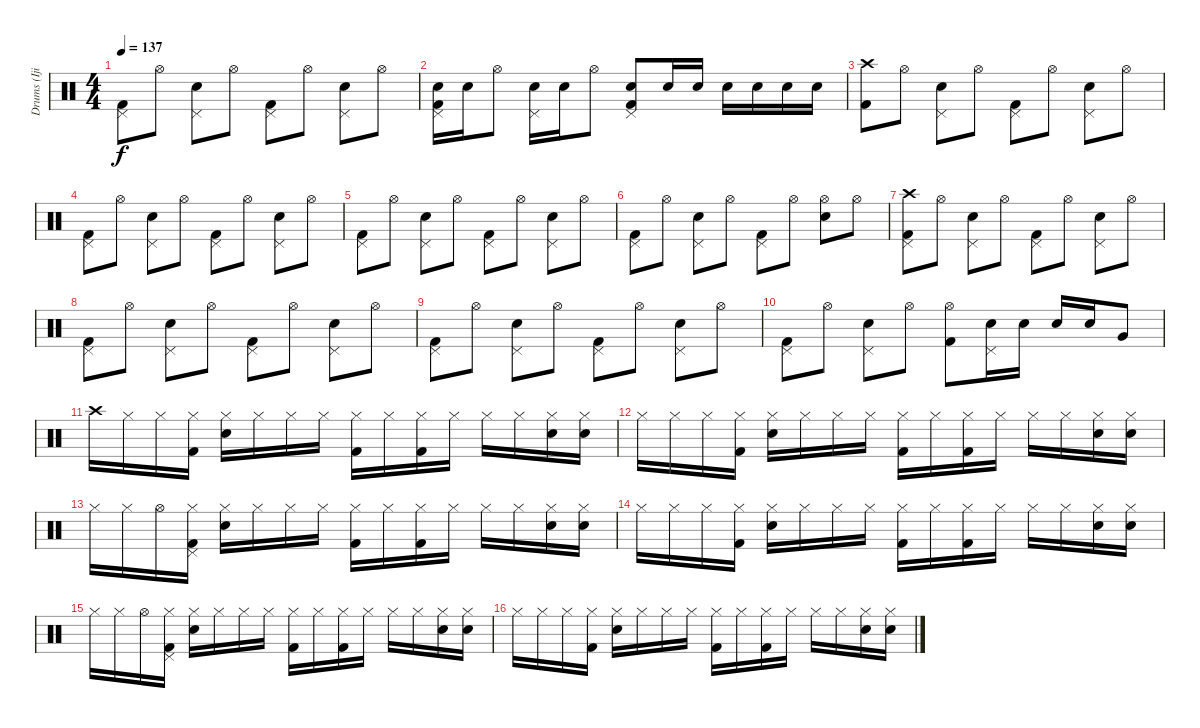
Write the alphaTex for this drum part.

\track ("Drums (Ijichi)" "Drums (Iji") {instrument percussion}
\staff {score}
\articulation defaults
\ts (4 4)
\tempo 137
\clef neutral
\ks c
("Pedal Hi-Hat (hit)" "Kick (hit) 2").8{dy f} "Hi-Hat (open)".8 ("Pedal Hi-Hat (hit)" "Snare (hit) 2").8 "Hi-Hat (open)".8 ("Pedal Hi-Hat (hit)" "Kick (hit) 2").8 "Hi-Hat (open)".8 ("Pedal Hi-Hat (hit)" "Snare (hit) 2").8 "Hi-Hat (open)".8 |
("Pedal Hi-Hat (hit)" "Snare (hit) 2" "Kick (hit) 2").16 "Snare (hit) 2".16 "Hi-Hat (open)".8 ("Pedal Hi-Hat (hit)" "Snare (hit) 2").16 "Snare (hit) 2".16 "Hi-Hat (open)".8 ("Pedal Hi-Hat (hit)" "Snare (hit) 2" "Kick (hit) 2").8 "Snare (hit) 2".16 "Snare (hit) 2".16 "Snare (hit) 2".16 "Snare (hit) 2".16 "Snare (hit) 2".16 "Snare (hit) 2".16 |
("Crash high (hit)" "Kick (hit) 2").8 "Hi-Hat (open)".8 ("Pedal Hi-Hat (hit)" "Snare (hit) 2").8 "Hi-Hat (open)".8 ("Pedal Hi-Hat (hit)" "Kick (hit) 2").8 "Hi-Hat (open)".8 ("Pedal Hi-Hat (hit)" "Snare (hit) 2").8 "Hi-Hat (open)".8 |
("Pedal Hi-Hat (hit)" "Kick (hit) 2").8 "Hi-Hat (open)".8 ("Pedal Hi-Hat (hit)" "Snare (hit) 2").8 "Hi-Hat (open)".8 ("Pedal Hi-Hat (hit)" "Kick (hit) 2").8 "Hi-Hat (open)".8 ("Pedal Hi-Hat (hit)" "Snare (hit) 2").8 "Hi-Hat (open)".8 |
("Pedal Hi-Hat (hit)" "Kick (hit) 2").8 "Hi-Hat (open)".8 ("Pedal Hi-Hat (hit)" "Snare (hit) 2").8 "Hi-Hat (open)".8 ("Pedal Hi-Hat (hit)" "Kick (hit) 2").8 "Hi-Hat (open)".8 ("Pedal Hi-Hat (hit)" "Snare (hit) 2").8 "Hi-Hat (open)".8 |
("Pedal Hi-Hat (hit)" "Kick (hit) 2").8 "Hi-Hat (open)".8 ("Pedal Hi-Hat (hit)" "Snare (hit) 2").8 "Hi-Hat (open)".8 ("Pedal Hi-Hat (hit)" "Kick (hit) 2").8 "Hi-Hat (open)".8 ("Hi-Hat (open)" "Snare (hit) 2").8 "Hi-Hat (open)".8 |
("Crash high (hit)" "Pedal Hi-Hat (hit)" "Kick (hit) 2").8 "Hi-Hat (open)".8 ("Pedal Hi-Hat (hit)" "Snare (hit) 2").8 "Hi-Hat (open)".8 ("Pedal Hi-Hat (hit)" "Kick (hit) 2").8 "Hi-Hat (open)".8 ("Pedal Hi-Hat (hit)" "Snare (hit) 2").8 "Hi-Hat (open)".8 |
("Pedal Hi-Hat (hit)" "Kick (hit) 2").8 "Hi-Hat (open)".8 ("Pedal Hi-Hat (hit)" "Snare (hit) 2").8 "Hi-Hat (open)".8 ("Pedal Hi-Hat (hit)" "Kick (hit) 2").8 "Hi-Hat (open)".8 ("Pedal Hi-Hat (hit)" "Snare (hit) 2").8 "Hi-Hat (open)".8 |
("Pedal Hi-Hat (hit)" "Kick (hit) 2").8 "Hi-Hat (open)".8 ("Pedal Hi-Hat (hit)" "Snare (hit) 2").8 "Hi-Hat (open)".8 ("Pedal Hi-Hat (hit)" "Kick (hit) 2").8 "Hi-Hat (open)".8 ("Pedal Hi-Hat (hit)" "Snare (hit) 2").8 "Hi-Hat (open)".8 |
("Pedal Hi-Hat (hit)" "Kick (hit) 2").8 "Hi-Hat (open)".8 ("Pedal Hi-Hat (hit)" "Snare (hit) 2").8 "Hi-Hat (open)".8 ("Hi-Hat (open)" "Kick (hit) 2").8 ("Pedal Hi-Hat (hit)" "Snare (hit) 2").16 "Snare (hit) 2".16 "Snare (hit) 2".16 "Snare (hit) 2".16 "Very Low Tom (hit)".8 |
"Crash high (hit)".16 "Hi-Hat (closed)".16 "Hi-Hat (closed)".16 ("Hi-Hat (closed)" "Kick (hit) 2").16 ("Hi-Hat (closed)" "Snare (hit) 2").16 "Hi-Hat (closed)".16 "Hi-Hat (closed)".16 "Hi-Hat (closed)".16 ("Hi-Hat (closed)" "Kick (hit) 2").16 "Hi-Hat (closed)".16 ("Hi-Hat (closed)" "Kick (hit) 2").16 "Hi-Hat (closed)".16 "Hi-Hat (closed)".16 "Hi-Hat (closed)".16 ("Hi-Hat (closed)" "Snare (hit) 2").16 ("Hi-Hat (closed)" "Snare (hit) 2").16 |
"Hi-Hat (closed)".16 "Hi-Hat (closed)".16 "Hi-Hat (closed)".16 ("Hi-Hat (closed)" "Kick (hit) 2").16 ("Hi-Hat (closed)" "Snare (hit) 2").16 "Hi-Hat (closed)".16 "Hi-Hat (closed)".16 "Hi-Hat (closed)".16 ("Hi-Hat (closed)" "Kick (hit) 2").16 "Hi-Hat (closed)".16 ("Hi-Hat (closed)" "Kick (hit) 2").16 "Hi-Hat (closed)".16 "Hi-Hat (closed)".16 "Hi-Hat (closed)".16 ("Hi-Hat (closed)" "Snare (hit) 2").16 ("Hi-Hat (closed)" "Snare (hit) 2").16 |
"Hi-Hat (closed)".16 "Hi-Hat (closed)".16 "Hi-Hat (open)".16 ("Hi-Hat (closed)" "Pedal Hi-Hat (hit)" "Kick (hit) 2").16 ("Hi-Hat (closed)" "Snare (hit) 2").16 "Hi-Hat (closed)".16 "Hi-Hat (closed)".16 "Hi-Hat (closed)".16 ("Hi-Hat (closed)" "Kick (hit) 2").16 "Hi-Hat (closed)".16 ("Hi-Hat (closed)" "Kick (hit) 2").16 "Hi-Hat (closed)".16 "Hi-Hat (closed)".16 "Hi-Hat (closed)".16 ("Hi-Hat (closed)" "Snare (hit) 2").16 ("Hi-Hat (closed)" "Snare (hit) 2").16 |
"Hi-Hat (closed)".16 "Hi-Hat (closed)".16 "Hi-Hat (closed)".16 ("Hi-Hat (closed)" "Kick (hit) 2").16 ("Hi-Hat (closed)" "Snare (hit) 2").16 "Hi-Hat (closed)".16 "Hi-Hat (closed)".16 "Hi-Hat (closed)".16 ("Hi-Hat (closed)" "Kick (hit) 2").16 "Hi-Hat (closed)".16 ("Hi-Hat (closed)" "Kick (hit) 2").16 "Hi-Hat (closed)".16 "Hi-Hat (closed)".16 "Hi-Hat (closed)".16 ("Hi-Hat (closed)" "Snare (hit) 2").16 ("Hi-Hat (closed)" "Snare (hit) 2").16 |
"Hi-Hat (closed)".16 "Hi-Hat (closed)".16 "Hi-Hat (open)".16 ("Hi-Hat (closed)" "Pedal Hi-Hat (hit)" "Kick (hit) 2").16 ("Hi-Hat (closed)" "Snare (hit) 2").16 "Hi-Hat (closed)".16 "Hi-Hat (closed)".16 "Hi-Hat (closed)".16 ("Hi-Hat (closed)" "Kick (hit) 2").16 "Hi-Hat (closed)".16 ("Hi-Hat (closed)" "Kick (hit) 2").16 "Hi-Hat (closed)".16 "Hi-Hat (closed)".16 "Hi-Hat (closed)".16 ("Hi-Hat (closed)" "Snare (hit) 2").16 ("Hi-Hat (closed)" "Snare (hit) 2").16 |
"Hi-Hat (closed)".16 "Hi-Hat (closed)".16 "Hi-Hat (closed)".16 ("Hi-Hat (closed)" "Kick (hit) 2").16 ("Hi-Hat (closed)" "Snare (hit) 2").16 "Hi-Hat (closed)".16 "Hi-Hat (closed)".16 "Hi-Hat (closed)".16 ("Hi-Hat (closed)" "Kick (hit) 2").16 "Hi-Hat (closed)".16 ("Hi-Hat (closed)" "Kick (hit) 2").16 "Hi-Hat (closed)".16 "Hi-Hat (closed)".16 "Hi-Hat (closed)".16 ("Hi-Hat (closed)" "Snare (hit) 2").16 ("Hi-Hat (closed)" "Snare (hit) 2").16
